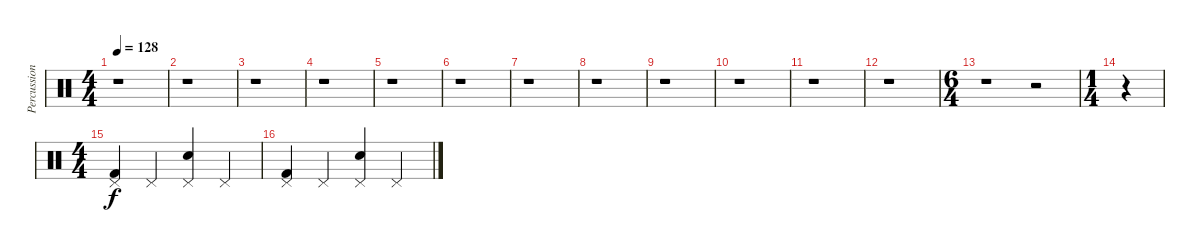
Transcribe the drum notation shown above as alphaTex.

\track ("Percussion" "Percussion") {instrument percussion}
\staff {score}
\articulation defaults
\ts (4 4)
\tempo 128
\clef neutral
\ks c
r.1{dy f} |
r.1 |
r.1 |
r.1 |
r.1 |
r.1 |
r.1 |
r.1 |
r.1 |
r.1 |
r.1 |
r.1 |
\ts (6 4)
r.1 r.2 |
\ts (1 4)
r.4 |
\ts (4 4)
("Kick (hit) 2" "Pedal Hi-Hat (hit)").4 "Pedal Hi-Hat (hit)".4 ("Electric Snare (hit)" "Pedal Hi-Hat (hit)").4 "Pedal Hi-Hat (hit)".4 |
("Kick (hit) 2" "Pedal Hi-Hat (hit)").4 "Pedal Hi-Hat (hit)".4 ("Electric Snare (hit)" "Pedal Hi-Hat (hit)").4 "Pedal Hi-Hat (hit)".4
